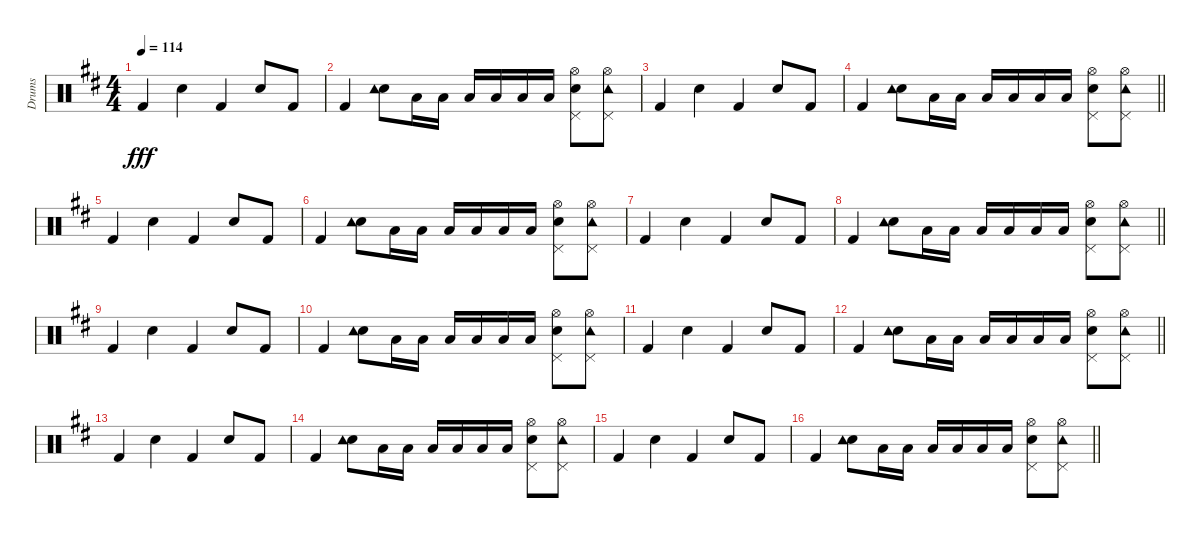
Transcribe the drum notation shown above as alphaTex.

\track ("Drums" "Drums") {instrument percussion}
\staff {score}
\articulation defaults
\ts (4 4)
\tempo 114
\clef neutral
\ks d "Kick (hit) 2".4{dy fff} "Snare (hit) 2".4 "Kick (hit) 2".4 "Snare (hit) 2".8 "Kick (hit) 2".8
|
"Kick (hit) 2".4 ("Snare (hit) 2" "Tambourine (hit)").8 "Low Tom (hit)".16 "Low Tom (hit)".16 "Low Tom (hit)".16 "Low Tom (hit)".16 "Low Tom (hit)".16 "Low Tom (hit)".16 ("Snare (hit) 2" "Pedal Hi-Hat (hit)" "Hi-Hat (open)").8 ("Hi-Hat (open)" "Pedal Hi-Hat (hit)" "Tambourine (hit)").8 |
"Kick (hit) 2".4 "Snare (hit) 2".4 "Kick (hit) 2".4 "Snare (hit) 2".8 "Kick (hit) 2".8 |
\barLineRight lightlight "Kick (hit) 2".4
("Snare (hit) 2" "Tambourine (hit)").8 "Low Tom (hit)".16 "Low Tom (hit)".16 "Low Tom (hit)".16 "Low Tom (hit)".16 "Low Tom (hit)".16 "Low Tom (hit)".16 ("Snare (hit) 2" "Pedal Hi-Hat (hit)" "Hi-Hat (open)").8 ("Hi-Hat (open)" "Pedal Hi-Hat (hit)" "Tambourine (hit)").8 |
"Kick (hit) 2".4 "Snare (hit) 2".4 "Kick (hit) 2".4 "Snare (hit) 2".8 "Kick (hit) 2".8 |
"Kick (hit) 2".4 ("Snare (hit) 2" "Tambourine (hit)").8 "Low Tom (hit)".16 "Low Tom (hit)".16 "Low Tom (hit)".16 "Low Tom (hit)".16 "Low Tom (hit)".16 "Low Tom (hit)".16 ("Snare (hit) 2" "Pedal Hi-Hat (hit)" "Hi-Hat (open)").8 ("Hi-Hat (open)" "Pedal Hi-Hat (hit)" "Tambourine (hit)").8 |
"Kick (hit) 2".4 "Snare (hit) 2".4 "Kick (hit) 2".4 "Snare (hit) 2".8 "Kick (hit) 2".8 |
\barLineRight lightlight "Kick (hit) 2".4
("Snare (hit) 2" "Tambourine (hit)").8 "Low Tom (hit)".16 "Low Tom (hit)".16 "Low Tom (hit)".16 "Low Tom (hit)".16 "Low Tom (hit)".16 "Low Tom (hit)".16 ("Snare (hit) 2" "Pedal Hi-Hat (hit)" "Hi-Hat (open)").8 ("Hi-Hat (open)" "Pedal Hi-Hat (hit)" "Tambourine (hit)").8 |
"Kick (hit) 2".4 "Snare (hit) 2".4 "Kick (hit) 2".4 "Snare (hit) 2".8 "Kick (hit) 2".8 |
"Kick (hit) 2".4 ("Snare (hit) 2" "Tambourine (hit)").8 "Low Tom (hit)".16 "Low Tom (hit)".16 "Low Tom (hit)".16 "Low Tom (hit)".16 "Low Tom (hit)".16 "Low Tom (hit)".16 ("Snare (hit) 2" "Pedal Hi-Hat (hit)" "Hi-Hat (open)").8 ("Hi-Hat (open)" "Pedal Hi-Hat (hit)" "Tambourine (hit)").8 |
"Kick (hit) 2".4 "Snare (hit) 2".4 "Kick (hit) 2".4 "Snare (hit) 2".8 "Kick (hit) 2".8 |
\barLineRight lightlight "Kick (hit) 2".4
("Snare (hit) 2" "Tambourine (hit)").8 "Low Tom (hit)".16 "Low Tom (hit)".16 "Low Tom (hit)".16 "Low Tom (hit)".16 "Low Tom (hit)".16 "Low Tom (hit)".16 ("Snare (hit) 2" "Pedal Hi-Hat (hit)" "Hi-Hat (open)").8 ("Hi-Hat (open)" "Pedal Hi-Hat (hit)" "Tambourine (hit)").8 |
"Kick (hit) 2".4 "Snare (hit) 2".4 "Kick (hit) 2".4 "Snare (hit) 2".8 "Kick (hit) 2".8 |
"Kick (hit) 2".4 ("Snare (hit) 2" "Tambourine (hit)").8 "Low Tom (hit)".16 "Low Tom (hit)".16 "Low Tom (hit)".16 "Low Tom (hit)".16 "Low Tom (hit)".16 "Low Tom (hit)".16 ("Snare (hit) 2" "Pedal Hi-Hat (hit)" "Hi-Hat (open)").8 ("Hi-Hat (open)" "Pedal Hi-Hat (hit)" "Tambourine (hit)").8 |
"Kick (hit) 2".4 "Snare (hit) 2".4 "Kick (hit) 2".4 "Snare (hit) 2".8 "Kick (hit) 2".8 |
\barLineRight lightlight "Kick (hit) 2".4
("Snare (hit) 2" "Tambourine (hit)").8 "Low Tom (hit)".16 "Low Tom (hit)".16 "Low Tom (hit)".16 "Low Tom (hit)".16 "Low Tom (hit)".16 "Low Tom (hit)".16 ("Snare (hit) 2" "Pedal Hi-Hat (hit)" "Hi-Hat (open)").8 ("Hi-Hat (open)" "Pedal Hi-Hat (hit)" "Tambourine (hit)").8
